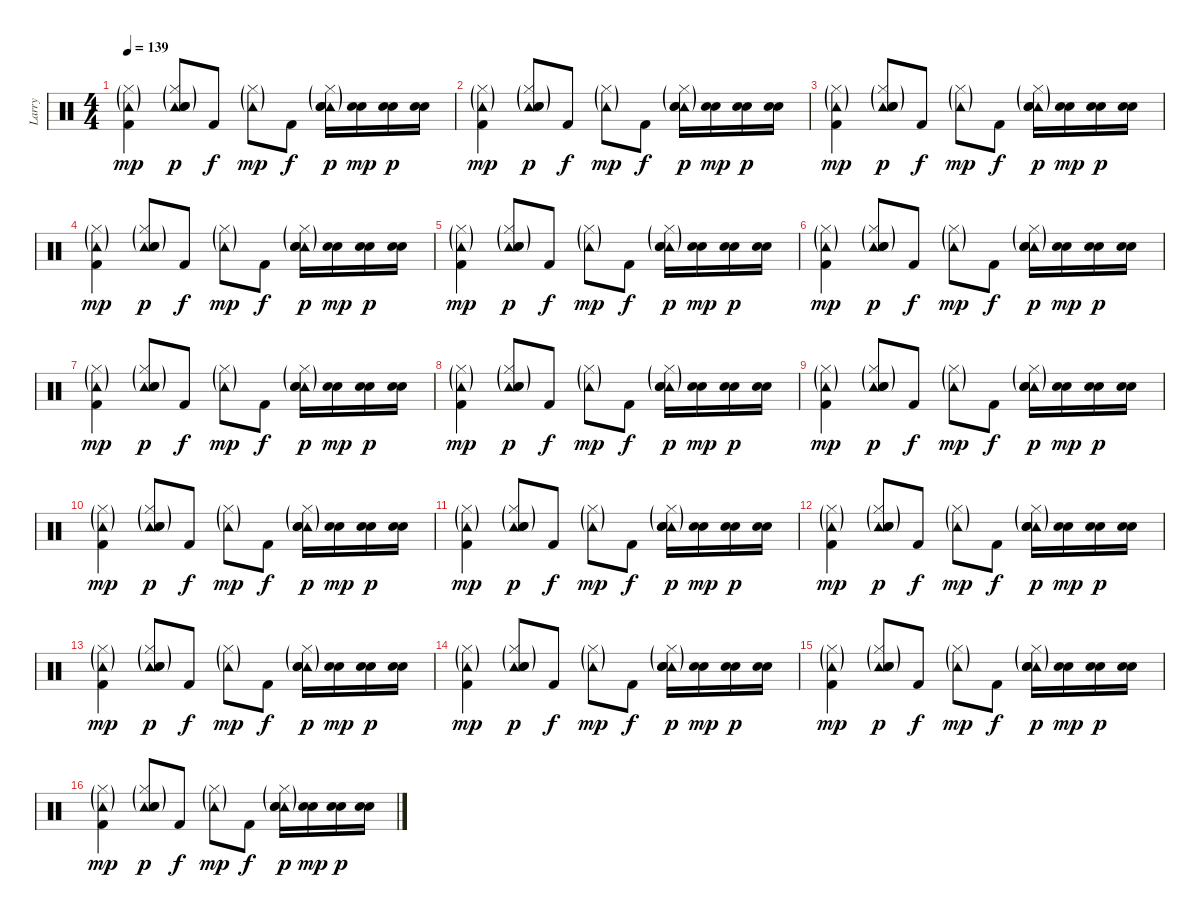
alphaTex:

\track ("Larry" "Larry") {instrument percussion}
\staff {score}
\articulation defaults
\ts (4 4)
\tempo 139
\clef neutral
\ks c
("Tambourine (hit)"{g} "Kick (hit) 2" "Hi-Hat (closed)"{g}).4{dy mp} ("Tambourine (hit)"{g} "Snare (hit) 2" "Electric Snare (hit)" "Hi-Hat (closed)"{g}).8{dy p} "Kick (hit) 2".8{dy f} ("Tambourine (hit)"{g} "Hi-Hat (closed)"{g}).8{dy mp} "Kick (hit) 2".8{dy f} ("Tambourine (hit)"{g} "Snare (hit) 2" "Electric Snare (hit)" "Hi-Hat (closed)"{g}).16{dy p} ("Snare (hit) 2" "Electric Snare (hit)").16{dy mp} ("Snare (hit) 2" "Electric Snare (hit)").16{dy p} ("Snare (hit) 2" "Electric Snare (hit)").16 |
("Tambourine (hit)"{g} "Kick (hit) 2" "Hi-Hat (closed)"{g}).4{dy mp} ("Tambourine (hit)"{g} "Snare (hit) 2" "Electric Snare (hit)" "Hi-Hat (closed)"{g}).8{dy p} "Kick (hit) 2".8{dy f} ("Tambourine (hit)"{g} "Hi-Hat (closed)"{g}).8{dy mp} "Kick (hit) 2".8{dy f} ("Tambourine (hit)"{g} "Snare (hit) 2" "Electric Snare (hit)" "Hi-Hat (closed)"{g}).16{dy p} ("Snare (hit) 2" "Electric Snare (hit)").16{dy mp} ("Snare (hit) 2" "Electric Snare (hit)").16{dy p} ("Snare (hit) 2" "Electric Snare (hit)").16 |
("Tambourine (hit)"{g} "Kick (hit) 2" "Hi-Hat (closed)"{g}).4{dy mp} ("Tambourine (hit)"{g} "Snare (hit) 2" "Electric Snare (hit)" "Hi-Hat (closed)"{g}).8{dy p} "Kick (hit) 2".8{dy f} ("Tambourine (hit)"{g} "Hi-Hat (closed)"{g}).8{dy mp} "Kick (hit) 2".8{dy f} ("Tambourine (hit)"{g} "Snare (hit) 2" "Electric Snare (hit)" "Hi-Hat (closed)"{g}).16{dy p} ("Snare (hit) 2" "Electric Snare (hit)").16{dy mp} ("Snare (hit) 2" "Electric Snare (hit)").16{dy p} ("Snare (hit) 2" "Electric Snare (hit)").16 |
("Tambourine (hit)"{g} "Kick (hit) 2" "Hi-Hat (closed)"{g}).4{dy mp} ("Tambourine (hit)"{g} "Snare (hit) 2" "Electric Snare (hit)" "Hi-Hat (closed)"{g}).8{dy p} "Kick (hit) 2".8{dy f} ("Tambourine (hit)"{g} "Hi-Hat (closed)"{g}).8{dy mp} "Kick (hit) 2".8{dy f} ("Tambourine (hit)"{g} "Snare (hit) 2" "Electric Snare (hit)" "Hi-Hat (closed)"{g}).16{dy p} ("Snare (hit) 2" "Electric Snare (hit)").16{dy mp} ("Snare (hit) 2" "Electric Snare (hit)").16{dy p} ("Snare (hit) 2" "Electric Snare (hit)").16 |
("Tambourine (hit)"{g} "Kick (hit) 2" "Hi-Hat (closed)"{g}).4{dy mp} ("Tambourine (hit)"{g} "Snare (hit) 2" "Electric Snare (hit)" "Hi-Hat (closed)"{g}).8{dy p} "Kick (hit) 2".8{dy f} ("Tambourine (hit)"{g} "Hi-Hat (closed)"{g}).8{dy mp} "Kick (hit) 2".8{dy f} ("Tambourine (hit)"{g} "Snare (hit) 2" "Electric Snare (hit)" "Hi-Hat (closed)"{g}).16{dy p} ("Snare (hit) 2" "Electric Snare (hit)").16{dy mp} ("Snare (hit) 2" "Electric Snare (hit)").16{dy p} ("Snare (hit) 2" "Electric Snare (hit)").16 |
("Tambourine (hit)"{g} "Kick (hit) 2" "Hi-Hat (closed)"{g}).4{dy mp} ("Tambourine (hit)"{g} "Snare (hit) 2" "Electric Snare (hit)" "Hi-Hat (closed)"{g}).8{dy p} "Kick (hit) 2".8{dy f} ("Tambourine (hit)"{g} "Hi-Hat (closed)"{g}).8{dy mp} "Kick (hit) 2".8{dy f} ("Tambourine (hit)"{g} "Snare (hit) 2" "Electric Snare (hit)" "Hi-Hat (closed)"{g}).16{dy p} ("Snare (hit) 2" "Electric Snare (hit)").16{dy mp} ("Snare (hit) 2" "Electric Snare (hit)").16{dy p} ("Snare (hit) 2" "Electric Snare (hit)").16 |
("Tambourine (hit)"{g} "Kick (hit) 2" "Hi-Hat (closed)"{g}).4{dy mp} ("Tambourine (hit)"{g} "Snare (hit) 2" "Electric Snare (hit)" "Hi-Hat (closed)"{g}).8{dy p} "Kick (hit) 2".8{dy f} ("Tambourine (hit)"{g} "Hi-Hat (closed)"{g}).8{dy mp} "Kick (hit) 2".8{dy f} ("Tambourine (hit)"{g} "Snare (hit) 2" "Electric Snare (hit)" "Hi-Hat (closed)"{g}).16{dy p} ("Snare (hit) 2" "Electric Snare (hit)").16{dy mp} ("Snare (hit) 2" "Electric Snare (hit)").16{dy p} ("Snare (hit) 2" "Electric Snare (hit)").16 |
("Tambourine (hit)"{g} "Kick (hit) 2" "Hi-Hat (closed)"{g}).4{dy mp} ("Tambourine (hit)"{g} "Snare (hit) 2" "Electric Snare (hit)" "Hi-Hat (closed)"{g}).8{dy p} "Kick (hit) 2".8{dy f} ("Tambourine (hit)"{g} "Hi-Hat (closed)"{g}).8{dy mp} "Kick (hit) 2".8{dy f} ("Tambourine (hit)"{g} "Snare (hit) 2" "Electric Snare (hit)" "Hi-Hat (closed)"{g}).16{dy p} ("Snare (hit) 2" "Electric Snare (hit)").16{dy mp} ("Snare (hit) 2" "Electric Snare (hit)").16{dy p} ("Snare (hit) 2" "Electric Snare (hit)").16 |
("Tambourine (hit)"{g} "Kick (hit) 2" "Hi-Hat (closed)"{g}).4{dy mp} ("Tambourine (hit)"{g} "Snare (hit) 2" "Electric Snare (hit)" "Hi-Hat (closed)"{g}).8{dy p} "Kick (hit) 2".8{dy f} ("Tambourine (hit)"{g} "Hi-Hat (closed)"{g}).8{dy mp} "Kick (hit) 2".8{dy f} ("Tambourine (hit)"{g} "Snare (hit) 2" "Electric Snare (hit)" "Hi-Hat (closed)"{g}).16{dy p} ("Snare (hit) 2" "Electric Snare (hit)").16{dy mp} ("Snare (hit) 2" "Electric Snare (hit)").16{dy p} ("Snare (hit) 2" "Electric Snare (hit)").16 |
("Tambourine (hit)"{g} "Kick (hit) 2" "Hi-Hat (closed)"{g}).4{dy mp} ("Tambourine (hit)"{g} "Snare (hit) 2" "Electric Snare (hit)" "Hi-Hat (closed)"{g}).8{dy p} "Kick (hit) 2".8{dy f} ("Tambourine (hit)"{g} "Hi-Hat (closed)"{g}).8{dy mp} "Kick (hit) 2".8{dy f} ("Tambourine (hit)"{g} "Snare (hit) 2" "Electric Snare (hit)" "Hi-Hat (closed)"{g}).16{dy p} ("Snare (hit) 2" "Electric Snare (hit)").16{dy mp} ("Snare (hit) 2" "Electric Snare (hit)").16{dy p} ("Snare (hit) 2" "Electric Snare (hit)").16 |
("Tambourine (hit)"{g} "Kick (hit) 2" "Hi-Hat (closed)"{g}).4{dy mp} ("Tambourine (hit)"{g} "Snare (hit) 2" "Electric Snare (hit)" "Hi-Hat (closed)"{g}).8{dy p} "Kick (hit) 2".8{dy f} ("Tambourine (hit)"{g} "Hi-Hat (closed)"{g}).8{dy mp} "Kick (hit) 2".8{dy f} ("Tambourine (hit)"{g} "Snare (hit) 2" "Electric Snare (hit)" "Hi-Hat (closed)"{g}).16{dy p} ("Snare (hit) 2" "Electric Snare (hit)").16{dy mp} ("Snare (hit) 2" "Electric Snare (hit)").16{dy p} ("Snare (hit) 2" "Electric Snare (hit)").16 |
("Tambourine (hit)"{g} "Kick (hit) 2" "Hi-Hat (closed)"{g}).4{dy mp} ("Tambourine (hit)"{g} "Snare (hit) 2" "Electric Snare (hit)" "Hi-Hat (closed)"{g}).8{dy p} "Kick (hit) 2".8{dy f} ("Tambourine (hit)"{g} "Hi-Hat (closed)"{g}).8{dy mp} "Kick (hit) 2".8{dy f} ("Tambourine (hit)"{g} "Snare (hit) 2" "Electric Snare (hit)" "Hi-Hat (closed)"{g}).16{dy p} ("Snare (hit) 2" "Electric Snare (hit)").16{dy mp} ("Snare (hit) 2" "Electric Snare (hit)").16{dy p} ("Snare (hit) 2" "Electric Snare (hit)").16 |
("Tambourine (hit)"{g} "Kick (hit) 2" "Hi-Hat (closed)"{g}).4{dy mp} ("Tambourine (hit)"{g} "Snare (hit) 2" "Electric Snare (hit)" "Hi-Hat (closed)"{g}).8{dy p} "Kick (hit) 2".8{dy f} ("Tambourine (hit)"{g} "Hi-Hat (closed)"{g}).8{dy mp} "Kick (hit) 2".8{dy f} ("Tambourine (hit)"{g} "Snare (hit) 2" "Electric Snare (hit)" "Hi-Hat (closed)"{g}).16{dy p} ("Snare (hit) 2" "Electric Snare (hit)").16{dy mp} ("Snare (hit) 2" "Electric Snare (hit)").16{dy p} ("Snare (hit) 2" "Electric Snare (hit)").16 |
("Tambourine (hit)"{g} "Kick (hit) 2" "Hi-Hat (closed)"{g}).4{dy mp} ("Tambourine (hit)"{g} "Snare (hit) 2" "Electric Snare (hit)" "Hi-Hat (closed)"{g}).8{dy p} "Kick (hit) 2".8{dy f} ("Tambourine (hit)"{g} "Hi-Hat (closed)"{g}).8{dy mp} "Kick (hit) 2".8{dy f} ("Tambourine (hit)"{g} "Snare (hit) 2" "Electric Snare (hit)" "Hi-Hat (closed)"{g}).16{dy p} ("Snare (hit) 2" "Electric Snare (hit)").16{dy mp} ("Snare (hit) 2" "Electric Snare (hit)").16{dy p} ("Snare (hit) 2" "Electric Snare (hit)").16 |
("Tambourine (hit)"{g} "Kick (hit) 2" "Hi-Hat (closed)"{g}).4{dy mp} ("Tambourine (hit)"{g} "Snare (hit) 2" "Electric Snare (hit)" "Hi-Hat (closed)"{g}).8{dy p} "Kick (hit) 2".8{dy f} ("Tambourine (hit)"{g} "Hi-Hat (closed)"{g}).8{dy mp} "Kick (hit) 2".8{dy f} ("Tambourine (hit)"{g} "Snare (hit) 2" "Electric Snare (hit)" "Hi-Hat (closed)"{g}).16{dy p} ("Snare (hit) 2" "Electric Snare (hit)").16{dy mp} ("Snare (hit) 2" "Electric Snare (hit)").16{dy p} ("Snare (hit) 2" "Electric Snare (hit)").16 |
("Tambourine (hit)"{g} "Kick (hit) 2" "Hi-Hat (closed)"{g}).4{dy mp} ("Tambourine (hit)"{g} "Snare (hit) 2" "Electric Snare (hit)" "Hi-Hat (closed)"{g}).8{dy p} "Kick (hit) 2".8{dy f} ("Tambourine (hit)"{g} "Hi-Hat (closed)"{g}).8{dy mp} "Kick (hit) 2".8{dy f} ("Tambourine (hit)"{g} "Snare (hit) 2" "Electric Snare (hit)" "Hi-Hat (closed)"{g}).16{dy p} ("Snare (hit) 2" "Electric Snare (hit)").16{dy mp} ("Snare (hit) 2" "Electric Snare (hit)").16{dy p} ("Snare (hit) 2" "Electric Snare (hit)").16
